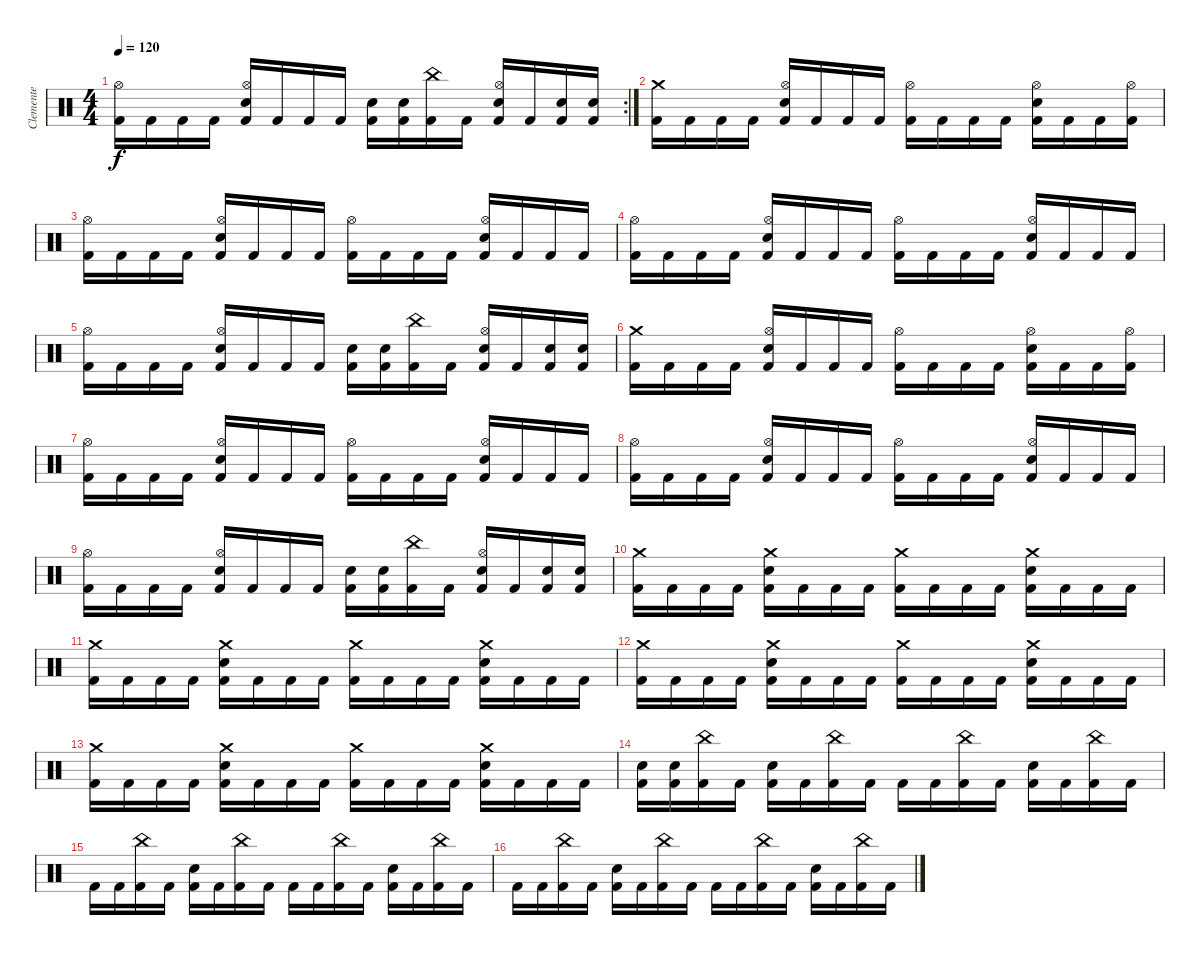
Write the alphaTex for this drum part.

\track ("Clemente" "Clemente") {instrument percussion}
\staff {score}
\articulation defaults
\rc 2
\ts (4 4)
\tempo 120
\clef neutral
\ks c
("Kick (hit) 2" "Hi-Hat (open)").16{dy f} "Kick (hit) 2".16 "Kick (hit) 2".16 "Kick (hit) 2".16 ("Kick (hit) 2" "Electric Snare (hit)" "Hi-Hat (open)").16 "Kick (hit) 2".16 "Kick (hit) 2".16 "Kick (hit) 2".16 ("Kick (hit) 2" "Electric Snare (hit)").16 ("Kick (hit) 2" "Electric Snare (hit)").16 ("Kick (hit) 2" "China (hit)").16 "Kick (hit) 2".16 ("Kick (hit) 2" "Electric Snare (hit)" "Hi-Hat (open)").16 "Kick (hit) 2".16 ("Kick (hit) 2" "Electric Snare (hit)").16 ("Kick (hit) 2" "Electric Snare (hit)").16 |
("Kick (hit) 2" "Crash medium (hit)").16 "Kick (hit) 2".16 "Kick (hit) 2".16 "Kick (hit) 2".16 ("Kick (hit) 2" "Electric Snare (hit)" "Hi-Hat (open)").16 "Kick (hit) 2".16 "Kick (hit) 2".16 "Kick (hit) 2".16 ("Kick (hit) 2" "Hi-Hat (open)").16 "Kick (hit) 2".16 "Kick (hit) 2".16 "Kick (hit) 2".16 ("Kick (hit) 2" "Electric Snare (hit)" "Hi-Hat (open)").16 "Kick (hit) 2".16 "Kick (hit) 2".16 ("Kick (hit) 2" "Hi-Hat (open)").16 |
("Kick (hit) 2" "Hi-Hat (open)").16 "Kick (hit) 2".16 "Kick (hit) 2".16 "Kick (hit) 2".16 ("Kick (hit) 2" "Electric Snare (hit)" "Hi-Hat (open)").16 "Kick (hit) 2".16 "Kick (hit) 2".16 "Kick (hit) 2".16 ("Kick (hit) 2" "Hi-Hat (open)").16 "Kick (hit) 2".16 "Kick (hit) 2".16 "Kick (hit) 2".16 ("Kick (hit) 2" "Electric Snare (hit)" "Hi-Hat (open)").16 "Kick (hit) 2".16 "Kick (hit) 2".16 "Kick (hit) 2".16 |
("Kick (hit) 2" "Hi-Hat (open)").16 "Kick (hit) 2".16 "Kick (hit) 2".16 "Kick (hit) 2".16 ("Kick (hit) 2" "Electric Snare (hit)" "Hi-Hat (open)").16 "Kick (hit) 2".16 "Kick (hit) 2".16 "Kick (hit) 2".16 ("Kick (hit) 2" "Hi-Hat (open)").16 "Kick (hit) 2".16 "Kick (hit) 2".16 "Kick (hit) 2".16 ("Kick (hit) 2" "Electric Snare (hit)" "Hi-Hat (open)").16 "Kick (hit) 2".16 "Kick (hit) 2".16 "Kick (hit) 2".16 |
("Kick (hit) 2" "Hi-Hat (open)").16 "Kick (hit) 2".16 "Kick (hit) 2".16 "Kick (hit) 2".16 ("Kick (hit) 2" "Electric Snare (hit)" "Hi-Hat (open)").16 "Kick (hit) 2".16 "Kick (hit) 2".16 "Kick (hit) 2".16 ("Kick (hit) 2" "Electric Snare (hit)").16 ("Kick (hit) 2" "Electric Snare (hit)").16 ("Kick (hit) 2" "China (hit)").16 "Kick (hit) 2".16 ("Kick (hit) 2" "Electric Snare (hit)" "Hi-Hat (open)").16 "Kick (hit) 2".16 ("Kick (hit) 2" "Electric Snare (hit)").16 ("Kick (hit) 2" "Electric Snare (hit)").16 |
("Kick (hit) 2" "Crash medium (hit)").16 "Kick (hit) 2".16 "Kick (hit) 2".16 "Kick (hit) 2".16 ("Kick (hit) 2" "Electric Snare (hit)" "Hi-Hat (open)").16 "Kick (hit) 2".16 "Kick (hit) 2".16 "Kick (hit) 2".16 ("Kick (hit) 2" "Hi-Hat (open)").16 "Kick (hit) 2".16 "Kick (hit) 2".16 "Kick (hit) 2".16 ("Kick (hit) 2" "Electric Snare (hit)" "Hi-Hat (open)").16 "Kick (hit) 2".16 "Kick (hit) 2".16 ("Kick (hit) 2" "Hi-Hat (open)").16 |
("Kick (hit) 2" "Hi-Hat (open)").16 "Kick (hit) 2".16 "Kick (hit) 2".16 "Kick (hit) 2".16 ("Kick (hit) 2" "Electric Snare (hit)" "Hi-Hat (open)").16 "Kick (hit) 2".16 "Kick (hit) 2".16 "Kick (hit) 2".16 ("Kick (hit) 2" "Hi-Hat (open)").16 "Kick (hit) 2".16 "Kick (hit) 2".16 "Kick (hit) 2".16 ("Kick (hit) 2" "Electric Snare (hit)" "Hi-Hat (open)").16 "Kick (hit) 2".16 "Kick (hit) 2".16 "Kick (hit) 2".16 |
("Kick (hit) 2" "Hi-Hat (open)").16 "Kick (hit) 2".16 "Kick (hit) 2".16 "Kick (hit) 2".16 ("Kick (hit) 2" "Electric Snare (hit)" "Hi-Hat (open)").16 "Kick (hit) 2".16 "Kick (hit) 2".16 "Kick (hit) 2".16 ("Kick (hit) 2" "Hi-Hat (open)").16 "Kick (hit) 2".16 "Kick (hit) 2".16 "Kick (hit) 2".16 ("Kick (hit) 2" "Electric Snare (hit)" "Hi-Hat (open)").16 "Kick (hit) 2".16 "Kick (hit) 2".16 "Kick (hit) 2".16 |
("Kick (hit) 2" "Hi-Hat (open)").16 "Kick (hit) 2".16 "Kick (hit) 2".16 "Kick (hit) 2".16 ("Kick (hit) 2" "Electric Snare (hit)" "Hi-Hat (open)").16 "Kick (hit) 2".16 "Kick (hit) 2".16 "Kick (hit) 2".16 ("Kick (hit) 2" "Electric Snare (hit)").16 ("Kick (hit) 2" "Electric Snare (hit)").16 ("Kick (hit) 2" "China (hit)").16 "Kick (hit) 2".16 ("Kick (hit) 2" "Electric Snare (hit)" "Hi-Hat (open)").16 "Kick (hit) 2".16 ("Kick (hit) 2" "Electric Snare (hit)").16 ("Kick (hit) 2" "Electric Snare (hit)").16 |
("Kick (hit) 2" "Crash medium (hit)").16 "Kick (hit) 2".16 "Kick (hit) 2".16 "Kick (hit) 2".16 ("Kick (hit) 2" "Electric Snare (hit)" "Crash medium (hit)").16 "Kick (hit) 2".16 "Kick (hit) 2".16 "Kick (hit) 2".16 ("Kick (hit) 2" "Crash medium (hit)").16 "Kick (hit) 2".16 "Kick (hit) 2".16 "Kick (hit) 2".16 ("Kick (hit) 2" "Electric Snare (hit)" "Crash medium (hit)").16 "Kick (hit) 2".16 "Kick (hit) 2".16 "Kick (hit) 2".16 |
("Kick (hit) 2" "Crash medium (hit)").16 "Kick (hit) 2".16 "Kick (hit) 2".16 "Kick (hit) 2".16 ("Kick (hit) 2" "Electric Snare (hit)" "Crash medium (hit)").16 "Kick (hit) 2".16 "Kick (hit) 2".16 "Kick (hit) 2".16 ("Kick (hit) 2" "Crash medium (hit)").16 "Kick (hit) 2".16 "Kick (hit) 2".16 "Kick (hit) 2".16 ("Kick (hit) 2" "Electric Snare (hit)" "Crash medium (hit)").16 "Kick (hit) 2".16 "Kick (hit) 2".16 "Kick (hit) 2".16 |
("Kick (hit) 2" "Crash medium (hit)").16 "Kick (hit) 2".16 "Kick (hit) 2".16 "Kick (hit) 2".16 ("Kick (hit) 2" "Electric Snare (hit)" "Crash medium (hit)").16 "Kick (hit) 2".16 "Kick (hit) 2".16 "Kick (hit) 2".16 ("Kick (hit) 2" "Crash medium (hit)").16 "Kick (hit) 2".16 "Kick (hit) 2".16 "Kick (hit) 2".16 ("Kick (hit) 2" "Electric Snare (hit)" "Crash medium (hit)").16 "Kick (hit) 2".16 "Kick (hit) 2".16 "Kick (hit) 2".16 |
("Kick (hit) 2" "Crash medium (hit)").16 "Kick (hit) 2".16 "Kick (hit) 2".16 "Kick (hit) 2".16 ("Kick (hit) 2" "Electric Snare (hit)" "Crash medium (hit)").16 "Kick (hit) 2".16 "Kick (hit) 2".16 "Kick (hit) 2".16 ("Kick (hit) 2" "Crash medium (hit)").16 "Kick (hit) 2".16 "Kick (hit) 2".16 "Kick (hit) 2".16 ("Kick (hit) 2" "Electric Snare (hit)" "Crash medium (hit)").16 "Kick (hit) 2".16 "Kick (hit) 2".16 "Kick (hit) 2".16 |
("Kick (hit) 2" "Electric Snare (hit)").16 ("Kick (hit) 2" "Electric Snare (hit)").16 ("Kick (hit) 2" "China (hit)").16 "Kick (hit) 2".16 ("Kick (hit) 2" "Electric Snare (hit)").16 "Kick (hit) 2".16 ("Kick (hit) 2" "China (hit)").16 "Kick (hit) 2".16 "Kick (hit) 2".16 "Kick (hit) 2".16 ("Kick (hit) 2" "China (hit)").16 "Kick (hit) 2".16 ("Kick (hit) 2" "Electric Snare (hit)").16 "Kick (hit) 2".16 ("Kick (hit) 2" "China (hit)").16 "Kick (hit) 2".16 |
"Kick (hit) 2".16 "Kick (hit) 2".16 ("Kick (hit) 2" "China (hit)").16 "Kick (hit) 2".16 ("Kick (hit) 2" "Electric Snare (hit)").16 "Kick (hit) 2".16 ("Kick (hit) 2" "China (hit)").16 "Kick (hit) 2".16 "Kick (hit) 2".16 "Kick (hit) 2".16 ("Kick (hit) 2" "China (hit)").16 "Kick (hit) 2".16 ("Kick (hit) 2" "Electric Snare (hit)").16 "Kick (hit) 2".16 ("Kick (hit) 2" "China (hit)").16 "Kick (hit) 2".16 |
"Kick (hit) 2".16 "Kick (hit) 2".16 ("Kick (hit) 2" "China (hit)").16 "Kick (hit) 2".16 ("Kick (hit) 2" "Electric Snare (hit)").16 "Kick (hit) 2".16 ("Kick (hit) 2" "China (hit)").16 "Kick (hit) 2".16 "Kick (hit) 2".16 "Kick (hit) 2".16 ("Kick (hit) 2" "China (hit)").16 "Kick (hit) 2".16 ("Kick (hit) 2" "Electric Snare (hit)").16 "Kick (hit) 2".16 ("Kick (hit) 2" "China (hit)").16 "Kick (hit) 2".16
